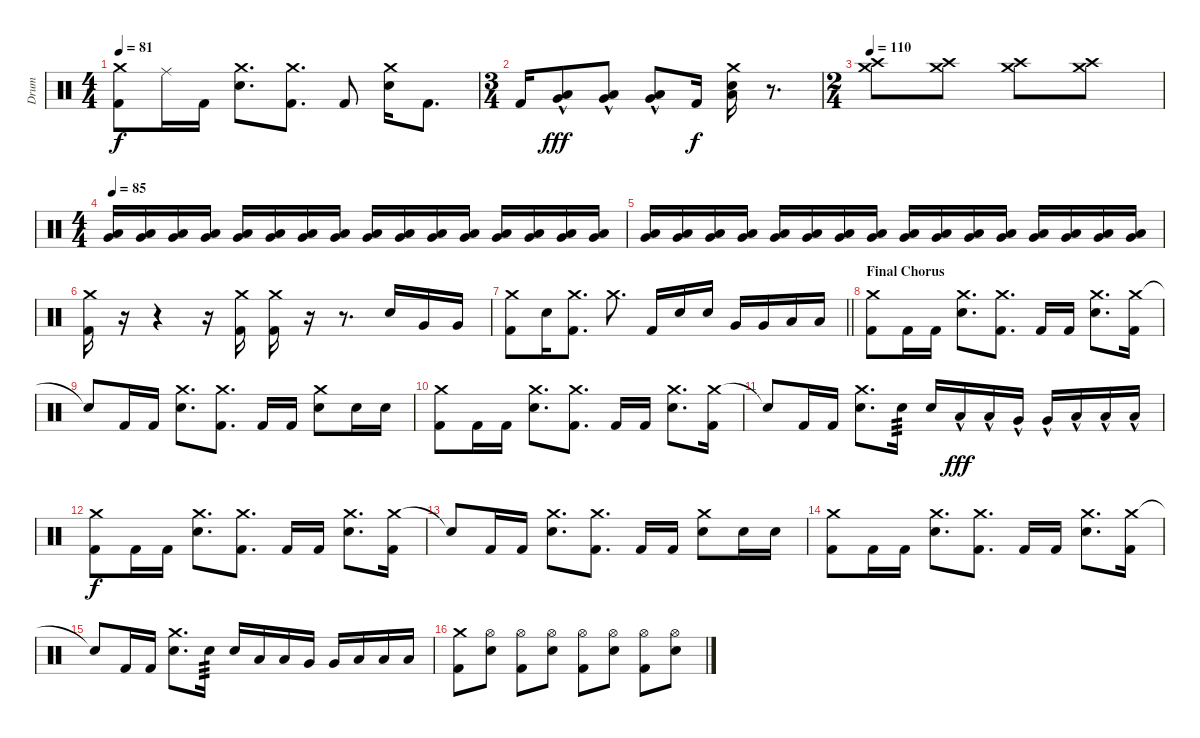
\track ("Drum" "Drum") {instrument percussion}
\staff {score}
\articulation defaults
\ts (4 4)
\tempo 81
\clef neutral
\ks c
("Crash medium (hit)" "Kick (hit) 2").8{dy f} "Ride (middle)".16 "Kick (hit) 2".16 ("Crash medium (hit)" "Electric Snare (hit)").8{d} ("Crash medium (hit)" "Kick (hit) 2").8{d} "Kick (hit) 2".8 ("Crash medium (hit)" "Electric Snare (hit)").16 "Kick (hit) 2".8{d} |
\ts (3 4)
"Kick (hit) 2".16 ("Very Low Tom (hit)"{hac} "Low Tom (hit)"{hac}).8{dy fff} ("Very Low Tom (hit)"{hac} "Low Tom (hit)"{hac}).8 ("Very Low Tom (hit)"{hac} "Low Tom (hit)"{hac}).8 "Kick (hit) 2".16{dy f} ("Crash medium (hit)" "Electric Snare (hit)" "Low Tom (hit)").16 r.8{d volume 0} |
\ts (2 4)
\tempo 110
("Crash medium (hit)" "Crash high (hit)").8{volume 15} ("Crash medium (hit)" "Crash high (hit)").8 ("Crash medium (hit)" "Crash high (hit)").8 ("Crash medium (hit)" "Crash high (hit)").8 |
\ts (4 4)
\tempo 85
("Very Low Tom (hit)" "Low Floor Tom (hit)").16 ("Very Low Tom (hit)" "Low Floor Tom (hit)").16 ("Very Low Tom (hit)" "Low Floor Tom (hit)").16 ("Very Low Tom (hit)" "Low Floor Tom (hit)").16 ("Very Low Tom (hit)" "Low Floor Tom (hit)").16 ("Very Low Tom (hit)" "Low Floor Tom (hit)").16 ("Very Low Tom (hit)" "Low Floor Tom (hit)").16 ("Very Low Tom (hit)" "Low Floor Tom (hit)").16 ("Very Low Tom (hit)" "Low Floor Tom (hit)").16 ("Very Low Tom (hit)" "Low Floor Tom (hit)").16 ("Very Low Tom (hit)" "Low Floor Tom (hit)").16 ("Very Low Tom (hit)" "Low Floor Tom (hit)").16 ("Very Low Tom (hit)" "Low Floor Tom (hit)").16 ("Very Low Tom (hit)" "Low Floor Tom (hit)").16 ("Very Low Tom (hit)" "Low Floor Tom (hit)").16 ("Very Low Tom (hit)" "Low Floor Tom (hit)").16 |
("Very Low Tom (hit)" "Low Floor Tom (hit)").16 ("Very Low Tom (hit)" "Low Floor Tom (hit)").16 ("Very Low Tom (hit)" "Low Floor Tom (hit)").16 ("Very Low Tom (hit)" "Low Floor Tom (hit)").16 ("Very Low Tom (hit)" "Low Floor Tom (hit)").16 ("Very Low Tom (hit)" "Low Floor Tom (hit)").16 ("Very Low Tom (hit)" "Low Floor Tom (hit)").16 ("Very Low Tom (hit)" "Low Floor Tom (hit)").16 ("Very Low Tom (hit)" "Low Floor Tom (hit)").16 ("Very Low Tom (hit)" "Low Floor Tom (hit)").16 ("Very Low Tom (hit)" "Low Floor Tom (hit)").16 ("Very Low Tom (hit)" "Low Floor Tom (hit)").16 ("Very Low Tom (hit)" "Low Floor Tom (hit)").16 ("Very Low Tom (hit)" "Low Floor Tom (hit)").16 ("Very Low Tom (hit)" "Low Floor Tom (hit)").16 ("Very Low Tom (hit)" "Low Floor Tom (hit)").16 |
("Crash medium (hit)" "Kick (hit) 2").16 r.16{volume 0} r.4 r.16 ("Crash medium (hit)" "Kick (hit) 2").16{volume 15} ("Crash medium (hit)" "Kick (hit) 2").16 r.16{volume 0} r.8{d} "Electric Snare (hit)".16{volume 15} "Very Low Tom (hit)".16 "Very Low Tom (hit)".16 |
\barLineRight lightlight
("Crash medium (hit)" "Kick (hit) 2").8 "Electric Snare (hit)".16 ("Crash medium (hit)" "Kick (hit) 2").8{d} "Crash medium (hit)".8{d} "Kick (hit) 2".16 "Electric Snare (hit)".16 "Electric Snare (hit)".16 "Very Low Tom (hit)".16 "Very Low Tom (hit)".16 "Low Tom (hit)".16 "Low Tom (hit)".16 |
\section ("" "Final Chorus")
("Crash medium (hit)" "Kick (hit) 2").8 "Kick (hit) 2".16 "Kick (hit) 2".16 ("Crash medium (hit)" "Electric Snare (hit)").8{d} ("Crash medium (hit)" "Kick (hit) 2").8{d} "Kick (hit) 2".16 "Kick (hit) 2".16 ("Crash medium (hit)" "Electric Snare (hit)").8{d} ("Crash medium (hit)" "Kick (hit) 2").16 |
"Snare (hit)"{t}.8 "Kick (hit) 2".16 "Kick (hit) 2".16 ("Crash medium (hit)" "Electric Snare (hit)").8{d} ("Crash medium (hit)" "Kick (hit) 2").8{d} "Kick (hit) 2".16 "Kick (hit) 2".16 ("Crash medium (hit)" "Electric Snare (hit)").8 "Electric Snare (hit)".16 "Electric Snare (hit)".16 |
("Crash medium (hit)" "Kick (hit) 2").8 "Kick (hit) 2".16 "Kick (hit) 2".16 ("Crash medium (hit)" "Electric Snare (hit)").8{d} ("Crash medium (hit)" "Kick (hit) 2").8{d} "Kick (hit) 2".16 "Kick (hit) 2".16 ("Crash medium (hit)" "Electric Snare (hit)").8{d} ("Crash medium (hit)" "Kick (hit) 2").16 |
"Snare (hit)"{t}.8 "Kick (hit) 2".16 "Kick (hit) 2".16 ("Crash medium (hit)" "Electric Snare (hit)").8{d} "Electric Snare (hit)".16{tp 3} "Electric Snare (hit)".16 "Low Tom (hit)"{hac}.16{dy fff} "Low Tom (hit)"{hac}.16 "Very Low Tom (hit)"{hac}.16 "Very Low Tom (hit)"{hac}.16 "Low Floor Tom (hit)"{hac}.16 "Low Floor Tom (hit)"{hac}.16 "Low Floor Tom (hit)"{hac}.16 |
("Crash medium (hit)" "Kick (hit) 2").8{dy f} "Kick (hit) 2".16 "Kick (hit) 2".16 ("Crash medium (hit)" "Electric Snare (hit)").8{d} ("Crash medium (hit)" "Kick (hit) 2").8{d} "Kick (hit) 2".16 "Kick (hit) 2".16 ("Crash medium (hit)" "Electric Snare (hit)").8{d} ("Crash medium (hit)" "Kick (hit) 2").16 |
"Snare (hit)"{t}.8 "Kick (hit) 2".16 "Kick (hit) 2".16 ("Crash medium (hit)" "Electric Snare (hit)").8{d} ("Crash medium (hit)" "Kick (hit) 2").8{d} "Kick (hit) 2".16 "Kick (hit) 2".16 ("Crash medium (hit)" "Electric Snare (hit)").8 "Electric Snare (hit)".16 "Electric Snare (hit)".16 |
("Crash medium (hit)" "Kick (hit) 2").8 "Kick (hit) 2".16 "Kick (hit) 2".16 ("Crash medium (hit)" "Electric Snare (hit)").8{d} ("Crash medium (hit)" "Kick (hit) 2").8{d} "Kick (hit) 2".16 "Kick (hit) 2".16 ("Crash medium (hit)" "Electric Snare (hit)").8{d} ("Crash medium (hit)" "Kick (hit) 2").16 |
"Snare (hit)"{t}.8 "Kick (hit) 2".16 "Kick (hit) 2".16 ("Crash medium (hit)" "Electric Snare (hit)").8{d} "Electric Snare (hit)".16{tp 3} "Electric Snare (hit)".16 "Low Tom (hit)".16 "Low Tom (hit)".16 "Very Low Tom (hit)".16 "Very Low Tom (hit)".16 "Low Floor Tom (hit)".16 "Low Floor Tom (hit)".16 "Low Floor Tom (hit)".16 |
("Crash medium (hit)" "Kick (hit) 2").8 ("Hi-Hat (open)" "Electric Snare (hit)").8 ("Hi-Hat (open)" "Kick (hit) 2").8 ("Hi-Hat (open)" "Electric Snare (hit)").8 ("Hi-Hat (open)" "Kick (hit) 2").8 ("Hi-Hat (open)" "Electric Snare (hit)").8 ("Hi-Hat (open)" "Kick (hit) 2").8 ("Hi-Hat (open)" "Electric Snare (hit)").8
